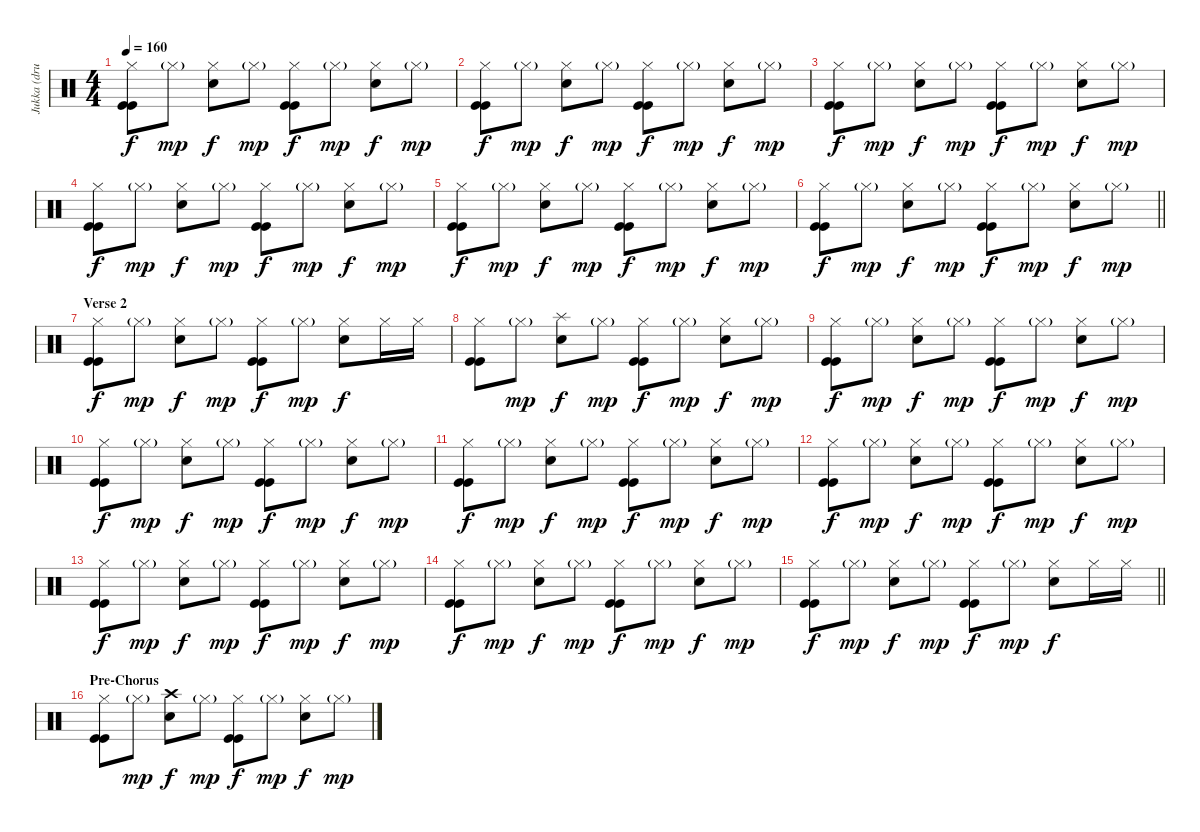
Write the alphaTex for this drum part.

\track ("Jukka (drums)" "Jukka (dru") {instrument percussion}
\staff {score}
\articulation defaults
\ts (4 4)
\tempo 160
\clef neutral
\ks c
("Hi-Hat (closed)" "Kick (hit)" "Kick (hit)").8{dy f} "Hi-Hat (closed)"{g}.8{dy mp} ("Hi-Hat (closed)" "Electric Snare (hit)").8{dy f} "Hi-Hat (closed)"{g}.8{dy mp} ("Hi-Hat (closed)" "Kick (hit)" "Kick (hit)").8{dy f} "Hi-Hat (closed)"{g}.8{dy mp} ("Hi-Hat (closed)" "Electric Snare (hit)").8{dy f} "Hi-Hat (closed)"{g}.8{dy mp} |
("Hi-Hat (closed)" "Kick (hit)" "Kick (hit)").8{dy f} "Hi-Hat (closed)"{g}.8{dy mp} ("Hi-Hat (closed)" "Electric Snare (hit)").8{dy f} "Hi-Hat (closed)"{g}.8{dy mp} ("Hi-Hat (closed)" "Kick (hit)" "Kick (hit)").8{dy f} "Hi-Hat (closed)"{g}.8{dy mp} ("Hi-Hat (closed)" "Electric Snare (hit)").8{dy f} "Hi-Hat (closed)"{g}.8{dy mp} |
("Hi-Hat (closed)" "Kick (hit)" "Kick (hit)").8{dy f} "Hi-Hat (closed)"{g}.8{dy mp} ("Hi-Hat (closed)" "Electric Snare (hit)").8{dy f} "Hi-Hat (closed)"{g}.8{dy mp} ("Hi-Hat (closed)" "Kick (hit)" "Kick (hit)").8{dy f} "Hi-Hat (closed)"{g}.8{dy mp} ("Hi-Hat (closed)" "Electric Snare (hit)").8{dy f} "Hi-Hat (closed)"{g}.8{dy mp} |
("Hi-Hat (closed)" "Kick (hit)" "Kick (hit)").8{dy f} "Hi-Hat (closed)"{g}.8{dy mp} ("Hi-Hat (closed)" "Electric Snare (hit)").8{dy f} "Hi-Hat (closed)"{g}.8{dy mp} ("Hi-Hat (closed)" "Kick (hit)" "Kick (hit)").8{dy f} "Hi-Hat (closed)"{g}.8{dy mp} ("Hi-Hat (closed)" "Electric Snare (hit)").8{dy f} "Hi-Hat (closed)"{g}.8{dy mp} |
("Hi-Hat (closed)" "Kick (hit)" "Kick (hit)").8{dy f} "Hi-Hat (closed)"{g}.8{dy mp} ("Hi-Hat (closed)" "Electric Snare (hit)").8{dy f} "Hi-Hat (closed)"{g}.8{dy mp} ("Hi-Hat (closed)" "Kick (hit)" "Kick (hit)").8{dy f} "Hi-Hat (closed)"{g}.8{dy mp} ("Hi-Hat (closed)" "Electric Snare (hit)").8{dy f} "Hi-Hat (closed)"{g}.8{dy mp} |
\barLineRight lightlight
("Hi-Hat (closed)" "Kick (hit)" "Kick (hit)").8{dy f} "Hi-Hat (closed)"{g}.8{dy mp} ("Hi-Hat (closed)" "Electric Snare (hit)").8{dy f} "Hi-Hat (closed)"{g}.8{dy mp} ("Hi-Hat (closed)" "Kick (hit)" "Kick (hit)").8{dy f} "Hi-Hat (closed)"{g}.8{dy mp} ("Hi-Hat (closed)" "Electric Snare (hit)").8{dy f} "Hi-Hat (closed)"{g}.8{dy mp} |
\section ("" "Verse 2")
("Hi-Hat (closed)" "Kick (hit)" "Kick (hit)").8{dy f} "Hi-Hat (closed)"{g}.8{dy mp} ("Hi-Hat (closed)" "Electric Snare (hit)").8{dy f} "Hi-Hat (closed)"{g}.8{dy mp} ("Hi-Hat (closed)" "Kick (hit)" "Kick (hit)").8{dy f} "Hi-Hat (closed)"{g}.8{dy mp} ("Hi-Hat (closed)" "Electric Snare (hit)").8{dy f} "Hi-Hat (closed)".16 "Hi-Hat (closed)".16 |
("Hi-Hat (closed)" "Kick (hit)" "Kick (hit)").8 "Hi-Hat (closed)"{g}.8{dy mp} ("Splash (hit)" "Electric Snare (hit)").8{dy f} "Hi-Hat (closed)"{g}.8{dy mp} ("Hi-Hat (closed)" "Kick (hit)" "Kick (hit)").8{dy f} "Hi-Hat (closed)"{g}.8{dy mp} ("Hi-Hat (closed)" "Electric Snare (hit)").8{dy f} "Hi-Hat (closed)"{g}.8{dy mp} |
("Hi-Hat (closed)" "Kick (hit)" "Kick (hit)").8{dy f} "Hi-Hat (closed)"{g}.8{dy mp} ("Hi-Hat (closed)" "Electric Snare (hit)").8{dy f} "Hi-Hat (closed)"{g}.8{dy mp} ("Hi-Hat (closed)" "Kick (hit)" "Kick (hit)").8{dy f} "Hi-Hat (closed)"{g}.8{dy mp} ("Hi-Hat (closed)" "Electric Snare (hit)").8{dy f} "Hi-Hat (closed)"{g}.8{dy mp} |
("Hi-Hat (closed)" "Kick (hit)" "Kick (hit)").8{dy f} "Hi-Hat (closed)"{g}.8{dy mp} ("Hi-Hat (closed)" "Electric Snare (hit)").8{dy f} "Hi-Hat (closed)"{g}.8{dy mp} ("Hi-Hat (closed)" "Kick (hit)" "Kick (hit)").8{dy f} "Hi-Hat (closed)"{g}.8{dy mp} ("Hi-Hat (closed)" "Electric Snare (hit)").8{dy f} "Hi-Hat (closed)"{g}.8{dy mp} |
("Hi-Hat (closed)" "Kick (hit)" "Kick (hit)").8{dy f} "Hi-Hat (closed)"{g}.8{dy mp} ("Hi-Hat (closed)" "Electric Snare (hit)").8{dy f} "Hi-Hat (closed)"{g}.8{dy mp} ("Hi-Hat (closed)" "Kick (hit)" "Kick (hit)").8{dy f} "Hi-Hat (closed)"{g}.8{dy mp} ("Hi-Hat (closed)" "Electric Snare (hit)").8{dy f} "Hi-Hat (closed)"{g}.8{dy mp} |
("Hi-Hat (closed)" "Kick (hit)" "Kick (hit)").8{dy f} "Hi-Hat (closed)"{g}.8{dy mp} ("Hi-Hat (closed)" "Electric Snare (hit)").8{dy f} "Hi-Hat (closed)"{g}.8{dy mp} ("Hi-Hat (closed)" "Kick (hit)" "Kick (hit)").8{dy f} "Hi-Hat (closed)"{g}.8{dy mp} ("Hi-Hat (closed)" "Electric Snare (hit)").8{dy f} "Hi-Hat (closed)"{g}.8{dy mp} |
("Hi-Hat (closed)" "Kick (hit)" "Kick (hit)").8{dy f} "Hi-Hat (closed)"{g}.8{dy mp} ("Hi-Hat (closed)" "Electric Snare (hit)").8{dy f} "Hi-Hat (closed)"{g}.8{dy mp} ("Hi-Hat (closed)" "Kick (hit)" "Kick (hit)").8{dy f} "Hi-Hat (closed)"{g}.8{dy mp} ("Hi-Hat (closed)" "Electric Snare (hit)").8{dy f} "Hi-Hat (closed)"{g}.8{dy mp} |
("Hi-Hat (closed)" "Kick (hit)" "Kick (hit)").8{dy f} "Hi-Hat (closed)"{g}.8{dy mp} ("Hi-Hat (closed)" "Electric Snare (hit)").8{dy f} "Hi-Hat (closed)"{g}.8{dy mp} ("Hi-Hat (closed)" "Kick (hit)" "Kick (hit)").8{dy f} "Hi-Hat (closed)"{g}.8{dy mp} ("Hi-Hat (closed)" "Electric Snare (hit)").8{dy f} "Hi-Hat (closed)"{g}.8{dy mp} |
\barLineRight lightlight
("Hi-Hat (closed)" "Kick (hit)" "Kick (hit)").8{dy f} "Hi-Hat (closed)"{g}.8{dy mp} ("Hi-Hat (closed)" "Electric Snare (hit)").8{dy f} "Hi-Hat (closed)"{g}.8{dy mp} ("Hi-Hat (closed)" "Kick (hit)" "Kick (hit)").8{dy f} "Hi-Hat (closed)"{g}.8{dy mp} ("Hi-Hat (closed)" "Electric Snare (hit)").8{dy f} "Hi-Hat (closed)".16 "Hi-Hat (closed)".16 |
\section ("" "Pre-Chorus")
("Hi-Hat (closed)" "Kick (hit)" "Kick (hit)").8 "Hi-Hat (closed)"{g}.8{dy mp} ("Crash high (hit)" "Electric Snare (hit)").8{dy f} "Hi-Hat (closed)"{g}.8{dy mp} ("Hi-Hat (closed)" "Kick (hit)" "Kick (hit)").8{dy f} "Hi-Hat (closed)"{g}.8{dy mp} ("Hi-Hat (closed)" "Electric Snare (hit)").8{dy f} "Hi-Hat (closed)"{g}.8{dy mp}
